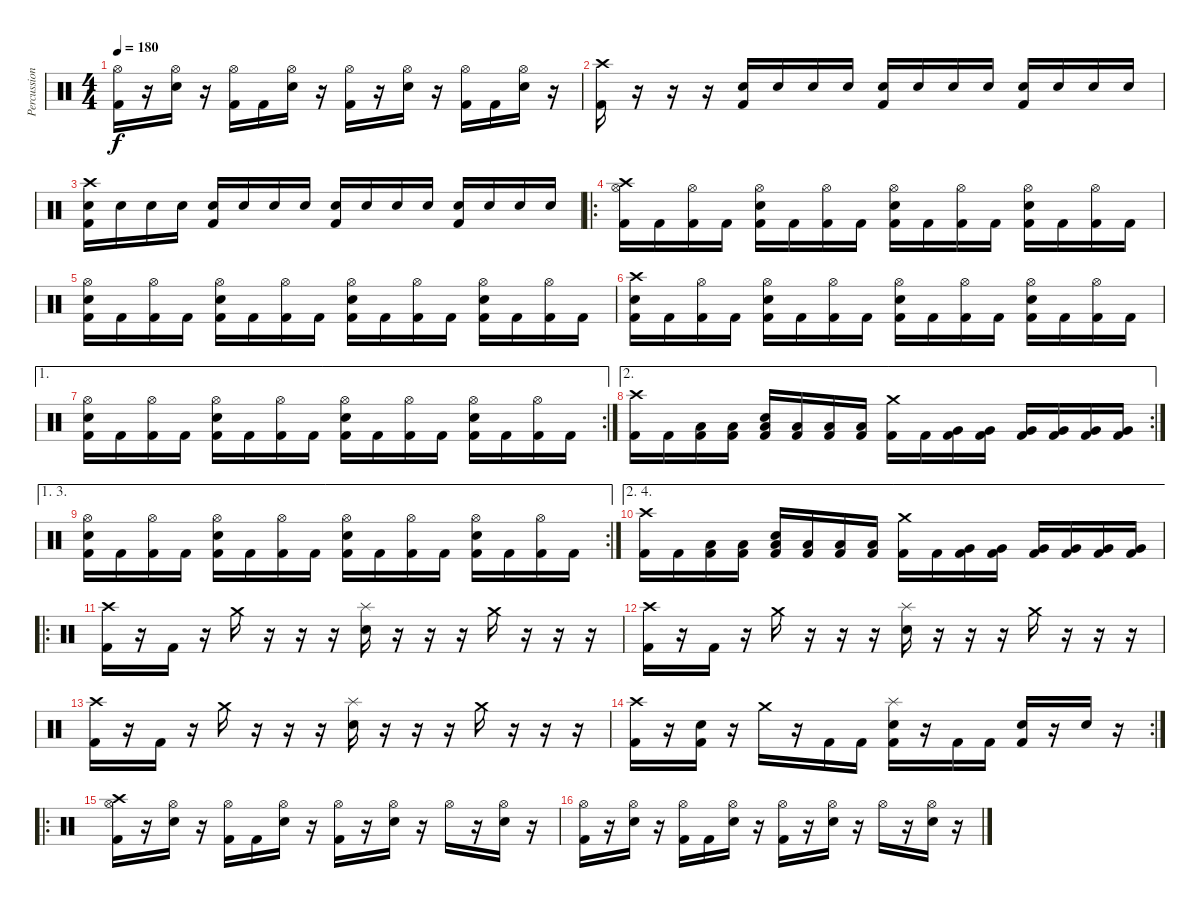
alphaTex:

\track ("Percussion" "Percussion") {instrument percussion}
\staff {score}
\articulation defaults
\ts (4 4)
\tempo 180
\clef neutral
\ks c
("Hi-Hat (open)" "Kick (hit) 2").16{dy f} r.16 ("Electric Snare (hit)" "Hi-Hat (open)").16 r.16 ("Hi-Hat (open)" "Kick (hit) 2").16 "Kick (hit) 2".16 ("Electric Snare (hit)" "Hi-Hat (open)").16 r.16 ("Hi-Hat (open)" "Kick (hit) 2").16 r.16 ("Electric Snare (hit)" "Hi-Hat (open)").16 r.16 ("Hi-Hat (open)" "Kick (hit) 2").16 "Kick (hit) 2".16 ("Electric Snare (hit)" "Hi-Hat (open)").16 r.16 |
("Crash high (hit)" "Kick (hit) 2").16 r.16 r.16 r.16 ("Electric Snare (hit)" "Kick (hit) 2").16 "Electric Snare (hit)".16 "Electric Snare (hit)".16 "Electric Snare (hit)".16 ("Electric Snare (hit)" "Kick (hit) 2").16 "Electric Snare (hit)".16 "Electric Snare (hit)".16 "Electric Snare (hit)".16 ("Electric Snare (hit)" "Kick (hit) 2").16 "Electric Snare (hit)".16 "Electric Snare (hit)".16 "Electric Snare (hit)".16 |
("Crash high (hit)" "Electric Snare (hit)" "Kick (hit) 2").16 "Electric Snare (hit)".16 "Electric Snare (hit)".16 "Electric Snare (hit)".16 ("Electric Snare (hit)" "Kick (hit) 2").16 "Electric Snare (hit)".16 "Electric Snare (hit)".16 "Electric Snare (hit)".16 ("Electric Snare (hit)" "Kick (hit) 2").16 "Electric Snare (hit)".16 "Electric Snare (hit)".16 "Electric Snare (hit)".16 ("Electric Snare (hit)" "Kick (hit) 2").16 "Electric Snare (hit)".16 "Electric Snare (hit)".16 "Electric Snare (hit)".16 |
\ro
("Hi-Hat (open)" "Crash high (hit)" "Kick (hit) 2").16 "Kick (hit) 2".16 ("Hi-Hat (open)" "Kick (hit) 2").16 "Kick (hit) 2".16 ("Hi-Hat (open)" "Electric Snare (hit)" "Kick (hit) 2").16 "Kick (hit) 2".16 ("Hi-Hat (open)" "Kick (hit) 2").16 "Kick (hit) 2".16 ("Hi-Hat (open)" "Electric Snare (hit)" "Kick (hit) 2").16 "Kick (hit) 2".16 ("Hi-Hat (open)" "Kick (hit) 2").16 "Kick (hit) 2".16 ("Hi-Hat (open)" "Electric Snare (hit)" "Kick (hit) 2").16 "Kick (hit) 2".16 ("Hi-Hat (open)" "Kick (hit) 2").16 "Kick (hit) 2".16 |
("Hi-Hat (open)" "Electric Snare (hit)" "Kick (hit) 2").16 "Kick (hit) 2".16 ("Hi-Hat (open)" "Kick (hit) 2").16 "Kick (hit) 2".16 ("Hi-Hat (open)" "Electric Snare (hit)" "Kick (hit) 2").16 "Kick (hit) 2".16 ("Hi-Hat (open)" "Kick (hit) 2").16 "Kick (hit) 2".16 ("Hi-Hat (open)" "Electric Snare (hit)" "Kick (hit) 2").16 "Kick (hit) 2".16 ("Hi-Hat (open)" "Kick (hit) 2").16 "Kick (hit) 2".16 ("Hi-Hat (open)" "Electric Snare (hit)" "Kick (hit) 2").16 "Kick (hit) 2".16 ("Hi-Hat (open)" "Kick (hit) 2").16 "Kick (hit) 2".16 |
("Electric Snare (hit)" "Crash high (hit)" "Kick (hit) 2").16 "Kick (hit) 2".16 ("Hi-Hat (open)" "Kick (hit) 2").16 "Kick (hit) 2".16 ("Hi-Hat (open)" "Electric Snare (hit)" "Kick (hit) 2").16 "Kick (hit) 2".16 ("Hi-Hat (open)" "Kick (hit) 2").16 "Kick (hit) 2".16 ("Hi-Hat (open)" "Electric Snare (hit)" "Kick (hit) 2").16 "Kick (hit) 2".16 ("Hi-Hat (open)" "Kick (hit) 2").16 "Kick (hit) 2".16 ("Hi-Hat (open)" "Electric Snare (hit)" "Kick (hit) 2").16 "Kick (hit) 2".16 ("Hi-Hat (open)" "Kick (hit) 2").16 "Kick (hit) 2".16 |
\ae 1
\rc 2
("Hi-Hat (open)" "Electric Snare (hit)" "Kick (hit) 2").16 "Kick (hit) 2".16 ("Hi-Hat (open)" "Kick (hit) 2").16 "Kick (hit) 2".16 ("Hi-Hat (open)" "Electric Snare (hit)" "Kick (hit) 2").16 "Kick (hit) 2".16 ("Hi-Hat (open)" "Kick (hit) 2").16 "Kick (hit) 2".16 ("Hi-Hat (open)" "Electric Snare (hit)" "Kick (hit) 2").16 "Kick (hit) 2".16 ("Hi-Hat (open)" "Kick (hit) 2").16 "Kick (hit) 2".16 ("Hi-Hat (open)" "Electric Snare (hit)" "Kick (hit) 2").16 "Kick (hit) 2".16 ("Hi-Hat (open)" "Kick (hit) 2").16 "Kick (hit) 2".16 |
\ae 2
\rc 2
("Crash high (hit)" "Kick (hit) 2").16 "Kick (hit) 2".16 ("Low Tom (hit)" "Kick (hit) 2").16 ("Low Tom (hit)" "Kick (hit) 2").16 ("Low Tom (hit)" "Electric Snare (hit)" "Kick (hit) 2").16 ("Low Tom (hit)" "Kick (hit) 2").16 ("Low Tom (hit)" "Kick (hit) 2").16 ("Low Tom (hit)" "Kick (hit) 2").16 ("Crash medium (hit)" "Kick (hit) 2").16 "Kick (hit) 2".16 ("Very Low Tom (hit)" "Kick (hit) 2").16 ("Very Low Tom (hit)" "Kick (hit) 2").16 ("Very Low Tom (hit)" "Kick (hit) 2").16 ("Very Low Tom (hit)" "Kick (hit) 2").16 ("Very Low Tom (hit)" "Kick (hit) 2").16 ("Very Low Tom (hit)" "Kick (hit) 2").16 |
\ae (1 3)
\rc 2
("Hi-Hat (open)" "Electric Snare (hit)" "Kick (hit) 2").16 "Kick (hit) 2".16 ("Hi-Hat (open)" "Kick (hit) 2").16 "Kick (hit) 2".16 ("Hi-Hat (open)" "Electric Snare (hit)" "Kick (hit) 2").16 "Kick (hit) 2".16 ("Hi-Hat (open)" "Kick (hit) 2").16 "Kick (hit) 2".16 ("Hi-Hat (open)" "Electric Snare (hit)" "Kick (hit) 2").16 "Kick (hit) 2".16 ("Hi-Hat (open)" "Kick (hit) 2").16 "Kick (hit) 2".16 ("Hi-Hat (open)" "Electric Snare (hit)" "Kick (hit) 2").16 "Kick (hit) 2".16 ("Hi-Hat (open)" "Kick (hit) 2").16 "Kick (hit) 2".16 |
\ae (2 4)
("Crash high (hit)" "Kick (hit) 2").16 "Kick (hit) 2".16 ("Low Tom (hit)" "Kick (hit) 2").16 ("Low Tom (hit)" "Kick (hit) 2").16 ("Low Tom (hit)" "Electric Snare (hit)" "Kick (hit) 2").16 ("Low Tom (hit)" "Kick (hit) 2").16 ("Low Tom (hit)" "Kick (hit) 2").16 ("Low Tom (hit)" "Kick (hit) 2").16 ("Crash medium (hit)" "Kick (hit) 2").16 "Kick (hit) 2".16 ("Very Low Tom (hit)" "Kick (hit) 2").16 ("Very Low Tom (hit)" "Kick (hit) 2").16 ("Very Low Tom (hit)" "Kick (hit) 2").16 ("Very Low Tom (hit)" "Kick (hit) 2").16 ("Very Low Tom (hit)" "Kick (hit) 2").16 ("Very Low Tom (hit)" "Kick (hit) 2").16 |
\ro
("Crash high (hit)" "Kick (hit) 2").16 r.16 "Kick (hit) 2".16 r.16 "Crash medium (hit)".16 r.16 r.16 r.16 ("Electric Snare (hit)" "Splash (hit)").16 r.16 r.16 r.16 "Crash medium (hit)".16 r.16 r.16 r.16 |
("Crash high (hit)" "Kick (hit) 2").16 r.16 "Kick (hit) 2".16 r.16 "Crash medium (hit)".16 r.16 r.16 r.16 ("Electric Snare (hit)" "Splash (hit)").16 r.16 r.16 r.16 "Crash medium (hit)".16 r.16 r.16 r.16 |
("Crash high (hit)" "Kick (hit) 2").16 r.16 "Kick (hit) 2".16 r.16 "Crash medium (hit)".16 r.16 r.16 r.16 ("Electric Snare (hit)" "Splash (hit)").16 r.16 r.16 r.16 "Crash medium (hit)".16 r.16 r.16 r.16 |
\rc 2
("Crash high (hit)" "Kick (hit) 2").16 r.16 ("Electric Snare (hit)" "Kick (hit) 2").16 r.16 "Crash medium (hit)".16 r.16 "Kick (hit) 2".16 "Kick (hit) 2".16 ("Electric Snare (hit)" "Splash (hit)" "Kick (hit) 2").16 r.16 "Kick (hit) 2".16 "Kick (hit) 2".16 ("Electric Snare (hit)" "Kick (hit) 2").16 r.16 "Electric Snare (hit)".16 r.16 |
\ro
("Crash high (hit)" "Hi-Hat (open)" "Kick (hit) 2").16 r.16 ("Electric Snare (hit)" "Hi-Hat (open)").16 r.16 ("Hi-Hat (open)" "Kick (hit) 2").16 "Kick (hit) 2".16 ("Electric Snare (hit)" "Hi-Hat (open)").16 r.16 ("Hi-Hat (open)" "Kick (hit) 2").16 r.16 ("Electric Snare (hit)" "Hi-Hat (open)").16 r.16 "Hi-Hat (open)".16 r.16 ("Electric Snare (hit)" "Hi-Hat (open)").16 r.16 |
("Hi-Hat (open)" "Kick (hit) 2").16 r.16 ("Electric Snare (hit)" "Hi-Hat (open)").16 r.16 ("Hi-Hat (open)" "Kick (hit) 2").16 "Kick (hit) 2".16 ("Electric Snare (hit)" "Hi-Hat (open)").16 r.16 ("Hi-Hat (open)" "Kick (hit) 2").16 r.16 ("Electric Snare (hit)" "Hi-Hat (open)").16 r.16 "Hi-Hat (open)".16 r.16 ("Electric Snare (hit)" "Hi-Hat (open)").16 r.16
